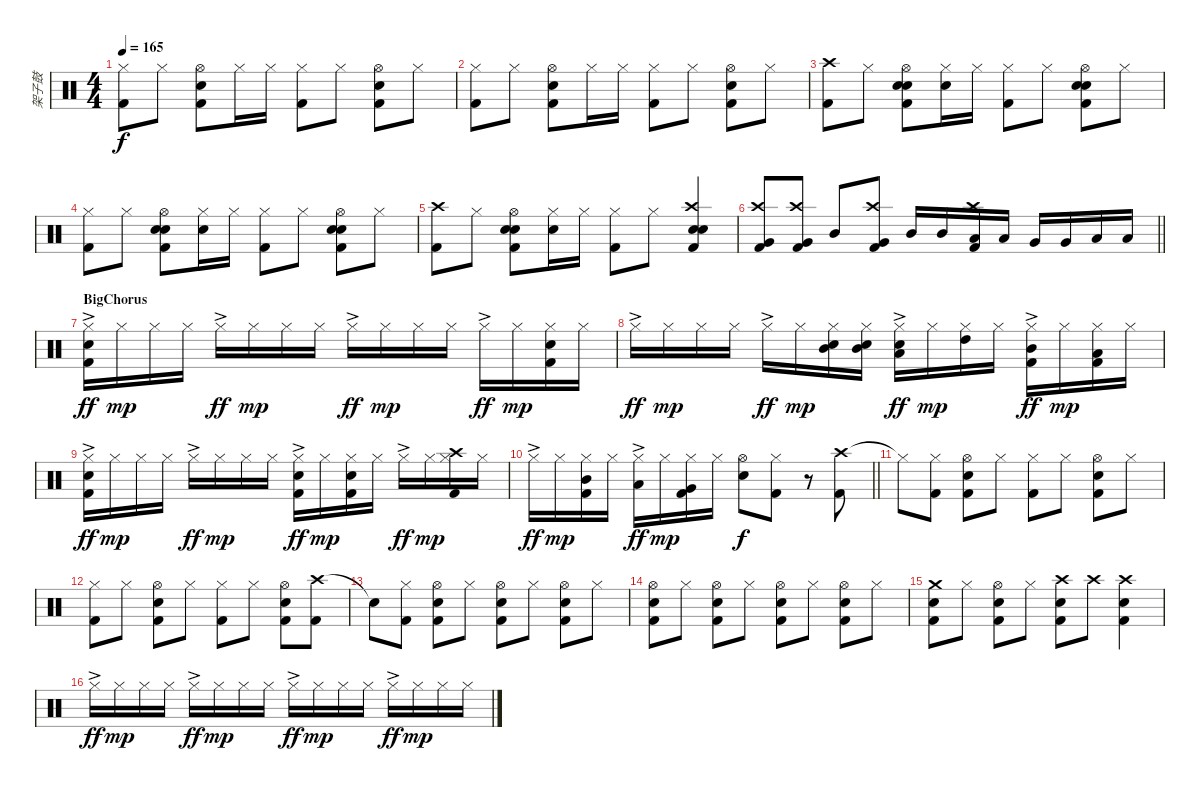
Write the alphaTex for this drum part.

\track ("架子鼓" "架子鼓") {instrument percussion}
\staff {score}
\articulation defaults
\ts (4 4)
\tempo 165
\clef neutral
\ks c
("Hi-Hat (closed)" "Kick (hit) 2").8{dy f} "Hi-Hat (closed)".8 ("Hi-Hat (open)" "Electric Snare (hit)" "Kick (hit) 2").8 "Hi-Hat (closed)".16 "Hi-Hat (closed)".16 ("Hi-Hat (closed)" "Kick (hit) 2").8 "Hi-Hat (closed)".8 ("Hi-Hat (open)" "Electric Snare (hit)" "Kick (hit) 2").8 "Hi-Hat (closed)".8 |
("Hi-Hat (closed)" "Kick (hit) 2").8 "Hi-Hat (closed)".8 ("Hi-Hat (open)" "Electric Snare (hit)" "Kick (hit) 2").8 "Hi-Hat (closed)".16 "Hi-Hat (closed)".16 ("Hi-Hat (closed)" "Kick (hit) 2").8 "Hi-Hat (closed)".8 ("Hi-Hat (open)" "Electric Snare (hit)" "Kick (hit) 2").8 "Hi-Hat (closed)".8 |
("Crash high (hit)" "Kick (hit) 2").8 "Hi-Hat (closed)".8 ("Hi-Hat (open)" "Electric Snare (hit)" "Hand Clap (hit)" "Kick (hit) 2").8 ("Hi-Hat (closed)" "Hand Clap (hit)").16 "Hi-Hat (closed)".16 ("Hi-Hat (closed)" "Kick (hit) 2").8 "Hi-Hat (closed)".8 ("Hi-Hat (open)" "Electric Snare (hit)" "Hand Clap (hit)" "Kick (hit) 2").8 "Hi-Hat (closed)".8 |
("Hi-Hat (closed)" "Kick (hit) 2").8 "Hi-Hat (closed)".8 ("Hi-Hat (open)" "Electric Snare (hit)" "Hand Clap (hit)" "Kick (hit) 2").8 ("Hi-Hat (closed)" "Hand Clap (hit)").16 "Hi-Hat (closed)".16 ("Hi-Hat (closed)" "Kick (hit) 2").8 "Hi-Hat (closed)".8 ("Hi-Hat (open)" "Electric Snare (hit)" "Hand Clap (hit)" "Kick (hit) 2").8 "Hi-Hat (closed)".8 |
("Crash high (hit)" "Kick (hit) 2").8 "Hi-Hat (closed)".8 ("Hi-Hat (open)" "Electric Snare (hit)" "Hand Clap (hit)" "Kick (hit) 2").8 ("Hi-Hat (closed)" "Hand Clap (hit)").16 "Hi-Hat (closed)".16 ("Hi-Hat (closed)" "Kick (hit) 2").8 "Hi-Hat (closed)".8 ("Crash high (hit)" "Electric Snare (hit)" "Hand Clap (hit)" "Kick (hit) 2").4 |
\barLineRight lightlight
("Crash high (hit)" "Very Low Tom (hit)" "Kick (hit) 2").8 ("Crash high (hit)" "Very Low Tom (hit)" "Kick (hit) 2").8 "Mid Tom (hit)".8 ("Crash high (hit)" "Very Low Tom (hit)" "Kick (hit) 2").8 "Mid Tom (hit)".16 "Mid Tom (hit)".16 ("Crash high (hit)" "Low Tom (hit)" "Kick (hit) 2").16 "Low Tom (hit)".16 "Very Low Tom (hit)".16 "Very Low Tom (hit)".16 "Low Floor Tom (hit)".16 "Low Floor Tom (hit)".16 |
\section ("" "BigChorus")
("Hi-Hat (closed)"{ac} "Electric Snare (hit)" "Kick (hit) 2").16{dy ff} "Hi-Hat (closed)".16{dy mp} "Hi-Hat (closed)".16 "Hi-Hat (closed)".16 "Hi-Hat (closed)"{ac}.16{dy ff} "Hi-Hat (closed)".16{dy mp} "Hi-Hat (closed)".16 "Hi-Hat (closed)".16 "Hi-Hat (closed)"{ac}.16{dy ff} "Hi-Hat (closed)".16{dy mp} "Hi-Hat (closed)".16 "Hi-Hat (closed)".16 "Hi-Hat (closed)"{ac}.16{dy ff} "Hi-Hat (closed)".16{dy mp} ("Hi-Hat (closed)" "Electric Snare (hit)" "Kick (hit) 2").16 "Hi-Hat (closed)".16 |
"Hi-Hat (closed)"{ac}.16{dy ff} "Hi-Hat (closed)".16{dy mp} "Hi-Hat (closed)".16 "Hi-Hat (closed)".16 "Hi-Hat (closed)"{ac}.16{dy ff} "Hi-Hat (closed)".16{dy mp} ("Hi-Hat (closed)" "Electric Snare (hit)" "Mid Tom (hit)").16 ("Hi-Hat (closed)" "Electric Snare (hit)" "Mid Tom (hit)").16 ("Hi-Hat (closed)"{ac} "Electric Snare (hit)" "Low Tom (hit)").16{dy ff} "Hi-Hat (closed)".16{dy mp} ("Hi-Hat (closed)" "High Tom (hit)").16 "Hi-Hat (closed)".16 ("Hi-Hat (closed)"{ac} "Mid Tom (hit)" "Kick (hit) 2").16{dy ff} "Hi-Hat (closed)".16{dy mp} ("Hi-Hat (closed)" "Low Tom (hit)" "Kick (hit) 2").16 "Hi-Hat (closed)".16 |
("Hi-Hat (closed)"{ac} "Electric Snare (hit)" "Kick (hit) 2").16{dy ff} "Hi-Hat (closed)".16{dy mp} "Hi-Hat (closed)".16 "Hi-Hat (closed)".16 "Hi-Hat (closed)"{ac}.16{dy ff} "Hi-Hat (closed)".16{dy mp} "Hi-Hat (closed)".16 "Hi-Hat (closed)".16 ("Hi-Hat (closed)"{ac} "Electric Snare (hit)" "Kick (hit) 2").16{dy ff} "Hi-Hat (closed)".16{dy mp} ("Hi-Hat (closed)" "Electric Snare (hit)" "Kick (hit) 2").16 "Hi-Hat (closed)".16 "Hi-Hat (closed)"{ac}.16{dy ff} "Hi-Hat (closed)".16{dy mp} ("Hi-Hat (closed)" "Crash high (hit)" "Kick (hit) 2").16 "Hi-Hat (closed)".16 |
\barLineRight lightlight "Hi-Hat (closed)"{ac}.16{dy ff} "Hi-Hat (closed)".16{dy mp}
("Hi-Hat (closed)" "Mid Tom (hit)" "Kick (hit) 2").16 "Hi-Hat (closed)".16 ("Hi-Hat (closed)"{ac} "Low Tom (hit)").16{dy ff} "Hi-Hat (closed)".16{dy mp} ("Hi-Hat (closed)" "Very Low Tom (hit)" "Kick (hit) 2").16 "Hi-Hat (closed)".16 ("Hi-Hat (open)" "Electric Snare (hit)").8{dy f} ("Hi-Hat (closed)" "Kick (hit) 2").8 r.8 ("Crash high (hit)" "Kick (hit) 2").8 |
"Hi-Hat (closed)"{t}.8 ("Hi-Hat (closed)" "Kick (hit) 2").8 ("Hi-Hat (open)" "Electric Snare (hit)" "Kick (hit) 2").8 "Hi-Hat (closed)".8 ("Hi-Hat (closed)" "Kick (hit) 2").8 "Hi-Hat (closed)".8 ("Hi-Hat (open)" "Electric Snare (hit)" "Kick (hit) 2").8 "Hi-Hat (closed)".8 |
("Hi-Hat (closed)" "Kick (hit) 2").8 "Hi-Hat (closed)".8 ("Hi-Hat (open)" "Electric Snare (hit)" "Kick (hit) 2").8 "Hi-Hat (closed)".8 ("Hi-Hat (closed)" "Kick (hit) 2").8 "Hi-Hat (closed)".8 ("Hi-Hat (open)" "Electric Snare (hit)" "Kick (hit) 2").8 ("Crash high (hit)" "Kick (hit) 2").8 |
"Snare (hit)"{t}.8 ("Hi-Hat (closed)" "Kick (hit) 2").8 ("Hi-Hat (open)" "Electric Snare (hit)" "Kick (hit) 2").8 "Hi-Hat (closed)".8 ("Hi-Hat (open)" "Electric Snare (hit)" "Kick (hit) 2").8 "Hi-Hat (closed)".8 ("Hi-Hat (open)" "Electric Snare (hit)" "Kick (hit) 2").8 "Hi-Hat (closed)".8 |
("Hi-Hat (open)" "Electric Snare (hit)" "Kick (hit) 2").8 "Hi-Hat (closed)".8 ("Hi-Hat (open)" "Electric Snare (hit)" "Kick (hit) 2").8 "Hi-Hat (closed)".8 ("Hi-Hat (open)" "Electric Snare (hit)" "Kick (hit) 2").8 "Hi-Hat (closed)".8 ("Hi-Hat (open)" "Electric Snare (hit)" "Kick (hit) 2").8 "Hi-Hat (closed)".8 |
("Crash medium (hit)" "Electric Snare (hit)" "Kick (hit) 2").8 "Hi-Hat (closed)".8 ("Hi-Hat (open)" "Electric Snare (hit)" "Kick (hit) 2").8 "Hi-Hat (closed)".8 ("Crash high (hit)" "Electric Snare (hit)" "Kick (hit) 2").8 "Crash high (hit)".8 ("Crash high (hit)" "Electric Snare (hit)" "Kick (hit) 2").4 |
"Hi-Hat (closed)"{ac}.16{dy ff} "Hi-Hat (closed)".16{dy mp} "Hi-Hat (closed)".16 "Hi-Hat (closed)".16 "Hi-Hat (closed)"{ac}.16{dy ff} "Hi-Hat (closed)".16{dy mp} "Hi-Hat (closed)".16 "Hi-Hat (closed)".16 "Hi-Hat (closed)"{ac}.16{dy ff} "Hi-Hat (closed)".16{dy mp} "Hi-Hat (closed)".16 "Hi-Hat (closed)".16 "Hi-Hat (closed)"{ac}.16{dy ff} "Hi-Hat (closed)".16{dy mp} "Hi-Hat (closed)".16 "Hi-Hat (closed)".16
